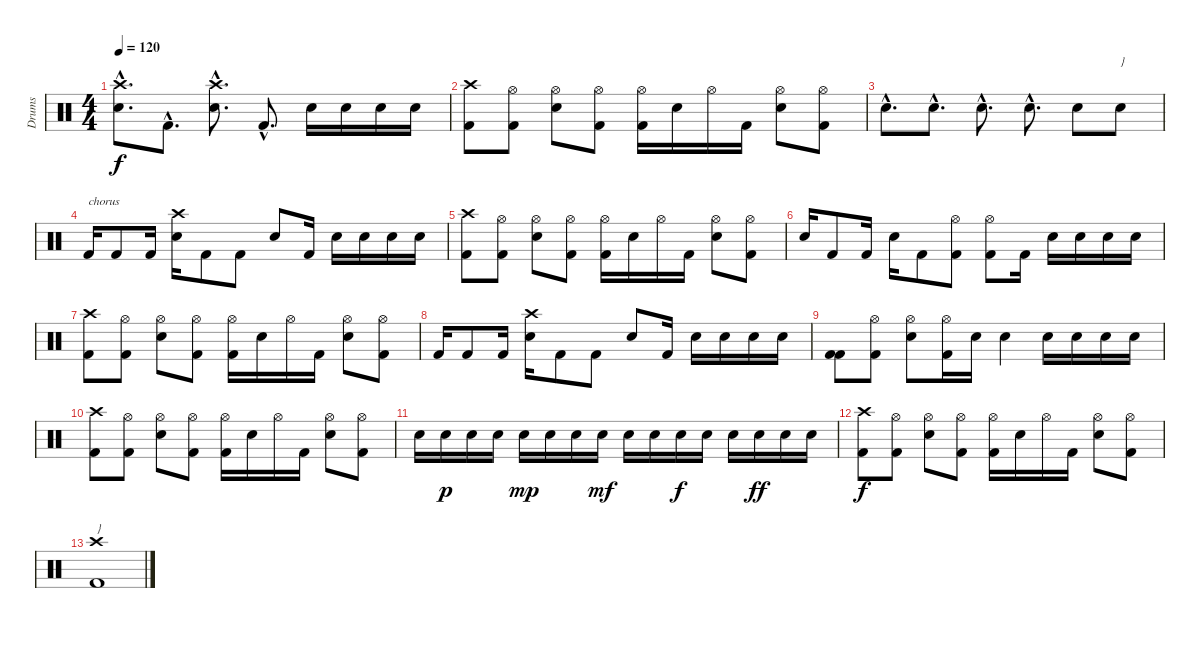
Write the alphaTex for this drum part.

\track ("Drums" "Drums") {instrument percussion}
\staff {score}
\articulation defaults
\ts (4 4)
\tempo 120
\clef neutral
\ks c
("Snare (hit) 2"{hac} "Crash high (hit)"{hac}).8{d dy f} "Kick (hit) 2"{hac}.8{d} ("Snare (hit) 2"{hac} "Crash high (hit)"{hac}).8{d} "Kick (hit) 2"{hac}.8{d} "Snare (hit) 2".16 "Snare (hit) 2".16 "Snare (hit) 2".16 "Snare (hit) 2".16 |
("Kick (hit) 2" "Crash high (hit)").8 ("Hi-Hat (open)" "Kick (hit) 2").8 ("Hi-Hat (open)" "Snare (hit) 2").8 ("Hi-Hat (open)" "Kick (hit) 2").8 ("Hi-Hat (open)" "Kick (hit) 2").16 "Snare (hit) 2".16 "Hi-Hat (open)".16 "Kick (hit) 2".16 ("Hi-Hat (open)" "Snare (hit) 2").8 ("Hi-Hat (open)" "Kick (hit) 2").8 |
"Snare (hit) 2"{hac}.8{d} "Snare (hit) 2"{hac}.8{d} "Snare (hit) 2"{hac}.8{d} "Snare (hit) 2"{hac}.8{d} "Snare (hit) 2".8 "Snare (hit) 2".8{txt "}"} |
"Kick (hit) 2".16{txt "chorus"} "Kick (hit) 2".8 "Kick (hit) 2".16 ("Crash high (hit)" "Snare (hit) 2").16 "Kick (hit) 2".8 "Kick (hit) 2".8 "Snare (hit) 2".8 "Kick (hit) 2".16 "Snare (hit) 2".16 "Snare (hit) 2".16 "Snare (hit) 2".16 "Snare (hit) 2".16 |
("Kick (hit) 2" "Crash high (hit)").8 ("Hi-Hat (open)" "Kick (hit) 2").8 ("Hi-Hat (open)" "Snare (hit) 2").8 ("Hi-Hat (open)" "Kick (hit) 2").8 ("Hi-Hat (open)" "Kick (hit) 2").16 "Snare (hit) 2".16 "Hi-Hat (open)".16 "Kick (hit) 2".16 ("Hi-Hat (open)" "Snare (hit) 2").8 ("Hi-Hat (open)" "Kick (hit) 2").8 |
"Snare (hit) 2".16 "Kick (hit) 2".8 "Kick (hit) 2".16 "Snare (hit) 2".16 "Kick (hit) 2".8 ("Hi-Hat (open)" "Kick (hit) 2").8 ("Hi-Hat (open)" "Kick (hit) 2").8 "Kick (hit) 2".16 "Snare (hit) 2".16 "Snare (hit) 2".16 "Snare (hit) 2".16 "Snare (hit) 2".16 |
("Kick (hit) 2" "Crash high (hit)").8 ("Hi-Hat (open)" "Kick (hit) 2").8 ("Hi-Hat (open)" "Snare (hit) 2").8 ("Hi-Hat (open)" "Kick (hit) 2").8 ("Hi-Hat (open)" "Kick (hit) 2").16 "Snare (hit) 2".16 "Hi-Hat (open)".16 "Kick (hit) 2".16 ("Hi-Hat (open)" "Snare (hit) 2").8 ("Hi-Hat (open)" "Kick (hit) 2").8 |
"Kick (hit) 2".16 "Kick (hit) 2".8 "Kick (hit) 2".16 ("Crash high (hit)" "Snare (hit) 2").16 "Kick (hit) 2".8 "Kick (hit) 2".8 "Snare (hit) 2".8 "Kick (hit) 2".16 "Snare (hit) 2".16 "Snare (hit) 2".16 "Snare (hit) 2".16 "Snare (hit) 2".16 |
("Kick (hit) 2" "Kick (hit) 2").8 ("Hi-Hat (open)" "Kick (hit) 2").8 ("Hi-Hat (open)" "Snare (hit) 2").8 ("Hi-Hat (open)" "Kick (hit) 2").16 "Snare (hit) 2".16 "Snare (hit) 2".4 "Snare (hit) 2".16 "Snare (hit) 2".16 "Snare (hit) 2".16 "Snare (hit) 2".16 |
("Kick (hit) 2" "Crash high (hit)").8 ("Hi-Hat (open)" "Kick (hit) 2").8 ("Hi-Hat (open)" "Snare (hit) 2").8 ("Hi-Hat (open)" "Kick (hit) 2").8 ("Hi-Hat (open)" "Kick (hit) 2").16 "Snare (hit) 2".16 "Hi-Hat (open)".16 "Kick (hit) 2".16 ("Hi-Hat (open)" "Snare (hit) 2").8 ("Hi-Hat (open)" "Kick (hit) 2").8 |
"Snare (hit) 2".16 "Snare (hit) 2".16{dy p} "Snare (hit) 2".16 "Snare (hit) 2".16 "Snare (hit) 2".16{dy mp} "Snare (hit) 2".16 "Snare (hit) 2".16 "Snare (hit) 2".16{dy mf} "Snare (hit) 2".16 "Snare (hit) 2".16 "Snare (hit) 2".16{dy f} "Snare (hit) 2".16 "Snare (hit) 2".16 "Snare (hit) 2".16{dy ff} "Snare (hit) 2".16 "Snare (hit) 2".16 |
("Kick (hit) 2" "Crash high (hit)").8{dy f} ("Hi-Hat (open)" "Kick (hit) 2").8 ("Hi-Hat (open)" "Snare (hit) 2").8 ("Hi-Hat (open)" "Kick (hit) 2").8 ("Hi-Hat (open)" "Kick (hit) 2").16 "Snare (hit) 2".16 "Hi-Hat (open)".16 "Kick (hit) 2".16 ("Hi-Hat (open)" "Snare (hit) 2").8 ("Hi-Hat (open)" "Kick (hit) 2").8 |
("Crash high (hit)" "Kick (hit) 2").1{txt "}"}
